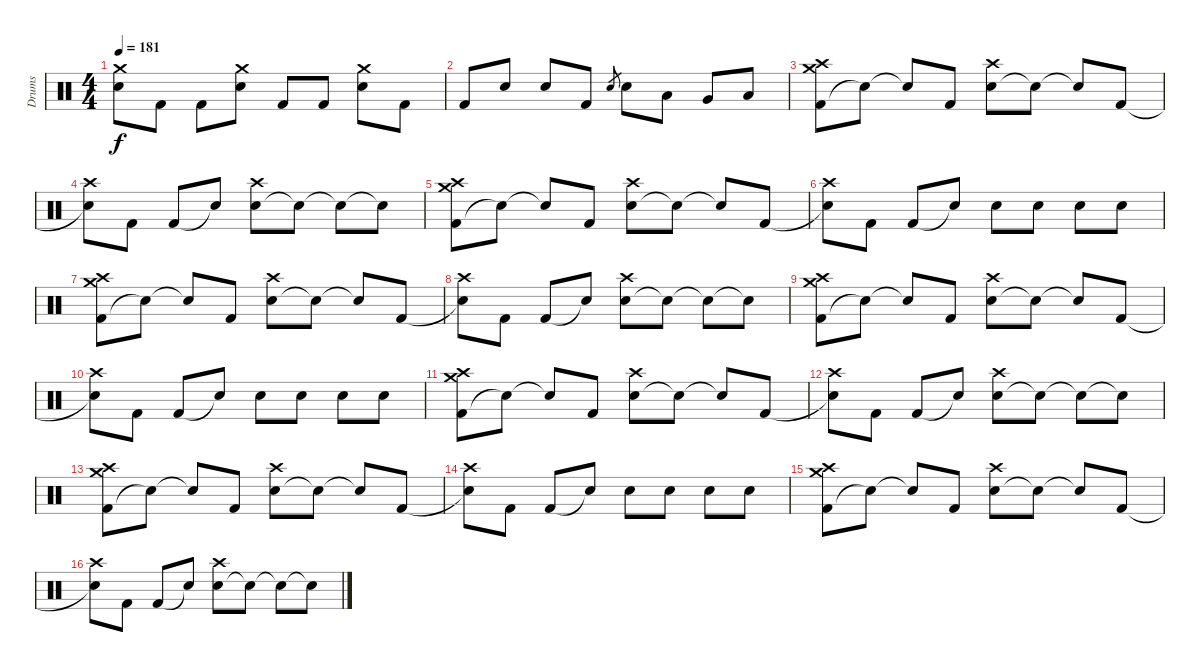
\track ("Drums" "Drums") {instrument percussion}
\staff {score}
\articulation defaults
\ts (4 4)
\tempo 181
\clef neutral
\ks c
("Electric Snare (hit)" "Crash medium (hit)").8{dy f} "Kick (hit) 2".8 "Kick (hit) 2".8 ("Electric Snare (hit)" "Crash medium (hit)").8 "Kick (hit) 2".8 "Kick (hit) 2".8 ("Electric Snare (hit)" "Crash medium (hit)").8 "Kick (hit) 2".8 |
"Kick (hit) 2".8 "Electric Snare (hit)".8 "Electric Snare (hit)".8 "Kick (hit) 2".8 "Electric Snare (hit)".8{gr} "Electric Snare (hit)".8 "Low Tom (hit)".8 "Very Low Tom (hit)".8 "Low Floor Tom (hit)".8 |
("Kick (hit) 2" "Crash high (hit)" "Crash medium (hit)").8 "Snare (hit)"{t}.8 "Snare (hit)"{t}.8 "Kick (hit) 2".8 ("Electric Snare (hit)" "Crash high (hit)").8 "Snare (hit)"{t}.8 "Snare (hit)"{t}.8 "Kick (hit) 2".8 |
("Snare (hit)"{t} "Crash high (hit)").8 "Kick (hit) 2".8 "Kick (hit) 2".8 "Snare (hit)"{t}.8 ("Electric Snare (hit)" "Crash high (hit)").8 "Snare (hit)"{t}.8 "Snare (hit)"{t}.8 "Snare (hit)"{t}.8 |
("Kick (hit) 2" "Crash high (hit)" "Crash medium (hit)").8 "Snare (hit)"{t}.8 "Snare (hit)"{t}.8 "Kick (hit) 2".8 ("Electric Snare (hit)" "Crash high (hit)").8 "Snare (hit)"{t}.8 "Snare (hit)"{t}.8 "Kick (hit) 2".8 |
("Snare (hit)"{t} "Crash high (hit)").8 "Kick (hit) 2".8 "Kick (hit) 2".8 "Snare (hit)"{t}.8 "Electric Snare (hit)".8 "Electric Snare (hit)".8 "Electric Snare (hit)".8 "Electric Snare (hit)".8 |
("Kick (hit) 2" "Crash high (hit)" "Crash medium (hit)").8 "Snare (hit)"{t}.8 "Snare (hit)"{t}.8 "Kick (hit) 2".8 ("Electric Snare (hit)" "Crash high (hit)").8 "Snare (hit)"{t}.8 "Snare (hit)"{t}.8 "Kick (hit) 2".8 |
("Snare (hit)"{t} "Crash high (hit)").8 "Kick (hit) 2".8 "Kick (hit) 2".8 "Snare (hit)"{t}.8 ("Electric Snare (hit)" "Crash high (hit)").8 "Snare (hit)"{t}.8 "Snare (hit)"{t}.8 "Snare (hit)"{t}.8 |
("Kick (hit) 2" "Crash high (hit)" "Crash medium (hit)").8 "Snare (hit)"{t}.8 "Snare (hit)"{t}.8 "Kick (hit) 2".8 ("Electric Snare (hit)" "Crash high (hit)").8 "Snare (hit)"{t}.8 "Snare (hit)"{t}.8 "Kick (hit) 2".8 |
("Snare (hit)"{t} "Crash high (hit)").8 "Kick (hit) 2".8 "Kick (hit) 2".8 "Snare (hit)"{t}.8 "Electric Snare (hit)".8 "Electric Snare (hit)".8 "Electric Snare (hit)".8 "Electric Snare (hit)".8 |
("Kick (hit) 2" "Crash high (hit)" "Crash medium (hit)").8 "Snare (hit)"{t}.8 "Snare (hit)"{t}.8 "Kick (hit) 2".8 ("Electric Snare (hit)" "Crash high (hit)").8 "Snare (hit)"{t}.8 "Snare (hit)"{t}.8 "Kick (hit) 2".8 |
("Snare (hit)"{t} "Crash high (hit)").8 "Kick (hit) 2".8 "Kick (hit) 2".8 "Snare (hit)"{t}.8 ("Electric Snare (hit)" "Crash high (hit)").8 "Snare (hit)"{t}.8 "Snare (hit)"{t}.8 "Snare (hit)"{t}.8 |
("Kick (hit) 2" "Crash high (hit)" "Crash medium (hit)").8 "Snare (hit)"{t}.8 "Snare (hit)"{t}.8 "Kick (hit) 2".8 ("Electric Snare (hit)" "Crash high (hit)").8 "Snare (hit)"{t}.8 "Snare (hit)"{t}.8 "Kick (hit) 2".8 |
("Snare (hit)"{t} "Crash high (hit)").8 "Kick (hit) 2".8 "Kick (hit) 2".8 "Snare (hit)"{t}.8 "Electric Snare (hit)".8 "Electric Snare (hit)".8 "Electric Snare (hit)".8 "Electric Snare (hit)".8 |
("Kick (hit) 2" "Crash high (hit)" "Crash medium (hit)").8 "Snare (hit)"{t}.8 "Snare (hit)"{t}.8 "Kick (hit) 2".8 ("Electric Snare (hit)" "Crash high (hit)").8 "Snare (hit)"{t}.8 "Snare (hit)"{t}.8 "Kick (hit) 2".8 |
("Snare (hit)"{t} "Crash high (hit)").8 "Kick (hit) 2".8 "Kick (hit) 2".8 "Snare (hit)"{t}.8 ("Electric Snare (hit)" "Crash high (hit)").8 "Snare (hit)"{t}.8 "Snare (hit)"{t}.8 "Snare (hit)"{t}.8
